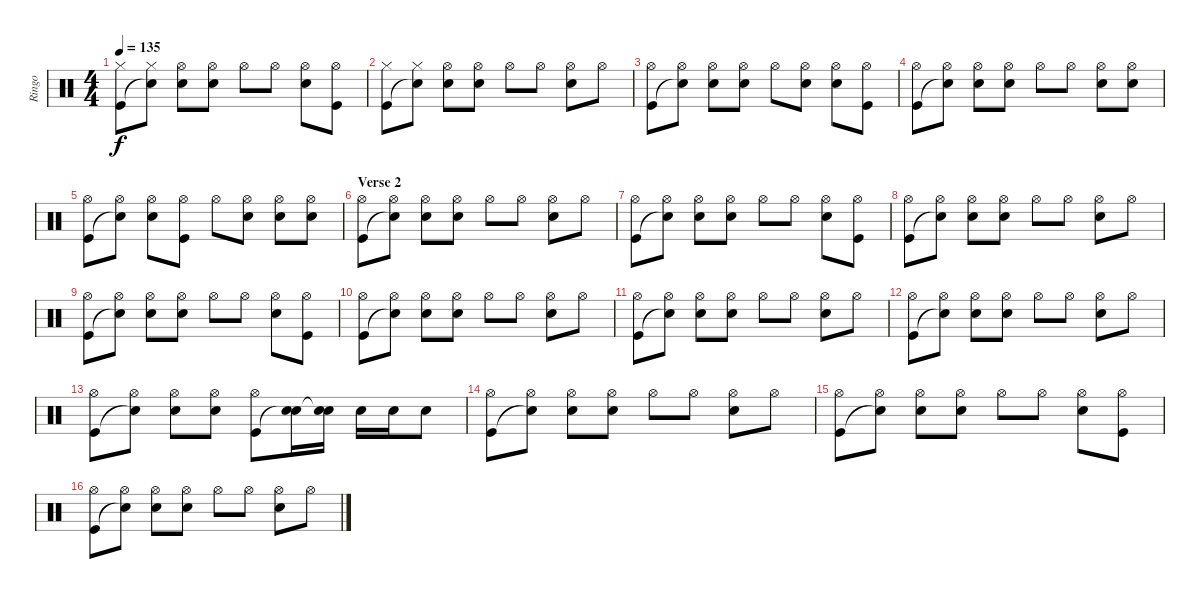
\track ("Ringo" "Ringo") {instrument percussion}
\staff {score}
\articulation defaults
\ts (4 4)
\tempo 135
\clef neutral
\ks c
("Hi-Hat (closed)" "Kick (hit)").8{dy f} ("Hi-Hat (closed)" "Snare (hit)"{t}).8 ("Hi-Hat (open)" "Snare (hit) 2").8 ("Hi-Hat (open)" "Snare (hit) 2").8 "Hi-Hat (open)".8 "Hi-Hat (open)".8 ("Hi-Hat (open)" "Snare (hit) 2").8 ("Hi-Hat (open)" "Kick (hit)").8 |
("Hi-Hat (closed)" "Kick (hit)").8 ("Hi-Hat (closed)" "Snare (hit)"{t}).8 ("Hi-Hat (open)" "Snare (hit) 2").8 ("Hi-Hat (open)" "Snare (hit) 2").8 "Hi-Hat (open)".8 "Hi-Hat (open)".8 ("Hi-Hat (open)" "Snare (hit) 2").8 "Hi-Hat (open)".8 |
("Hi-Hat (open)" "Kick (hit)").8 ("Hi-Hat (open)" "Snare (hit)"{t}).8 ("Hi-Hat (open)" "Snare (hit) 2").8 ("Hi-Hat (open)" "Snare (hit) 2").8 "Hi-Hat (open)".8 ("Hi-Hat (open)" "Snare (hit) 2").8 ("Hi-Hat (open)" "Snare (hit) 2").8 ("Hi-Hat (open)" "Kick (hit)").8 |
("Hi-Hat (open)" "Kick (hit)").8 ("Hi-Hat (open)" "Snare (hit)"{t}).8 ("Hi-Hat (open)" "Snare (hit) 2").8 ("Hi-Hat (open)" "Snare (hit) 2").8 "Hi-Hat (open)".8 "Hi-Hat (open)".8 ("Hi-Hat (open)" "Snare (hit) 2").8 ("Hi-Hat (open)" "Snare (hit)").8 |
("Hi-Hat (open)" "Kick (hit)").8 ("Hi-Hat (open)" "Snare (hit)"{t}).8 ("Hi-Hat (open)" "Snare (hit) 2").8 ("Hi-Hat (open)" "Kick (hit)").8 "Hi-Hat (open)".8 ("Hi-Hat (open)" "Snare (hit) 2").8 ("Hi-Hat (open)" "Snare (hit) 2").8 ("Hi-Hat (open)" "Snare (hit) 2").8 |
\section ("" "Verse 2")
("Hi-Hat (open)" "Kick (hit)").8 ("Hi-Hat (open)" "Snare (hit)"{t}).8 ("Hi-Hat (open)" "Snare (hit) 2").8 ("Hi-Hat (open)" "Snare (hit) 2").8 "Hi-Hat (open)".8 "Hi-Hat (open)".8 ("Hi-Hat (open)" "Snare (hit) 2").8 "Hi-Hat (open)".8 |
("Hi-Hat (open)" "Kick (hit)").8 ("Hi-Hat (open)" "Snare (hit)"{t}).8 ("Hi-Hat (open)" "Snare (hit) 2").8 ("Hi-Hat (open)" "Snare (hit) 2").8 "Hi-Hat (open)".8 "Hi-Hat (open)".8 ("Hi-Hat (open)" "Snare (hit) 2").8 ("Hi-Hat (open)" "Kick (hit)").8 |
("Hi-Hat (open)" "Kick (hit)").8 ("Hi-Hat (open)" "Snare (hit)"{t}).8 ("Hi-Hat (open)" "Snare (hit) 2").8 ("Hi-Hat (open)" "Snare (hit) 2").8 "Hi-Hat (open)".8 "Hi-Hat (open)".8 ("Hi-Hat (open)" "Snare (hit) 2").8 "Hi-Hat (open)".8 |
("Hi-Hat (open)" "Kick (hit)").8 ("Hi-Hat (open)" "Snare (hit)"{t}).8 ("Hi-Hat (open)" "Snare (hit) 2").8 ("Hi-Hat (open)" "Snare (hit) 2").8 "Hi-Hat (open)".8 "Hi-Hat (open)".8 ("Hi-Hat (open)" "Snare (hit) 2").8 ("Hi-Hat (open)" "Kick (hit)").8 |
("Hi-Hat (open)" "Kick (hit)").8 ("Hi-Hat (open)" "Snare (hit)"{t}).8 ("Hi-Hat (open)" "Snare (hit) 2").8 ("Hi-Hat (open)" "Snare (hit) 2").8 "Hi-Hat (open)".8 "Hi-Hat (open)".8 ("Hi-Hat (open)" "Snare (hit) 2").8 "Hi-Hat (open)".8 |
("Hi-Hat (open)" "Kick (hit)").8 ("Hi-Hat (open)" "Snare (hit)"{t}).8 ("Hi-Hat (open)" "Snare (hit) 2").8 ("Hi-Hat (open)" "Snare (hit) 2").8 "Hi-Hat (open)".8 "Hi-Hat (open)".8 ("Hi-Hat (open)" "Snare (hit) 2").8 "Hi-Hat (open)".8 |
("Hi-Hat (open)" "Kick (hit)").8 ("Hi-Hat (open)" "Snare (hit)"{t}).8 ("Hi-Hat (open)" "Snare (hit) 2").8 ("Hi-Hat (open)" "Snare (hit) 2").8 "Hi-Hat (open)".8 "Hi-Hat (open)".8 ("Hi-Hat (open)" "Snare (hit) 2").8 "Hi-Hat (open)".8 |
("Hi-Hat (open)" "Kick (hit)").8 ("Hi-Hat (open)" "Snare (hit)"{t}).8 ("Hi-Hat (open)" "Snare (hit) 2").8 ("Hi-Hat (open)" "Snare (hit) 2").8 ("Hi-Hat (open)" "Kick (hit)").8 ("Snare (hit) 2" "Snare (hit)"{t}).16 ("Snare (hit) 2" "Snare (hit)"{t}).16 "Snare (hit) 2".16 "Snare (hit) 2".16 "Snare (hit) 2".8 |
("Hi-Hat (open)" "Kick (hit)").8 ("Hi-Hat (open)" "Snare (hit)"{t}).8 ("Hi-Hat (open)" "Snare (hit) 2").8 ("Hi-Hat (open)" "Snare (hit) 2").8 "Hi-Hat (open)".8 "Hi-Hat (open)".8 ("Hi-Hat (open)" "Snare (hit) 2").8 "Hi-Hat (open)".8 |
("Hi-Hat (open)" "Kick (hit)").8 ("Hi-Hat (open)" "Snare (hit)"{t}).8 ("Hi-Hat (open)" "Snare (hit) 2").8 ("Hi-Hat (open)" "Snare (hit) 2").8 "Hi-Hat (open)".8 "Hi-Hat (open)".8 ("Hi-Hat (open)" "Snare (hit) 2").8 ("Hi-Hat (open)" "Kick (hit)").8 |
("Hi-Hat (open)" "Kick (hit)").8 ("Hi-Hat (open)" "Snare (hit)"{t}).8 ("Hi-Hat (open)" "Snare (hit) 2").8 ("Hi-Hat (open)" "Snare (hit) 2").8 "Hi-Hat (open)".8 "Hi-Hat (open)".8 ("Hi-Hat (open)" "Snare (hit) 2").8 "Hi-Hat (open)".8
